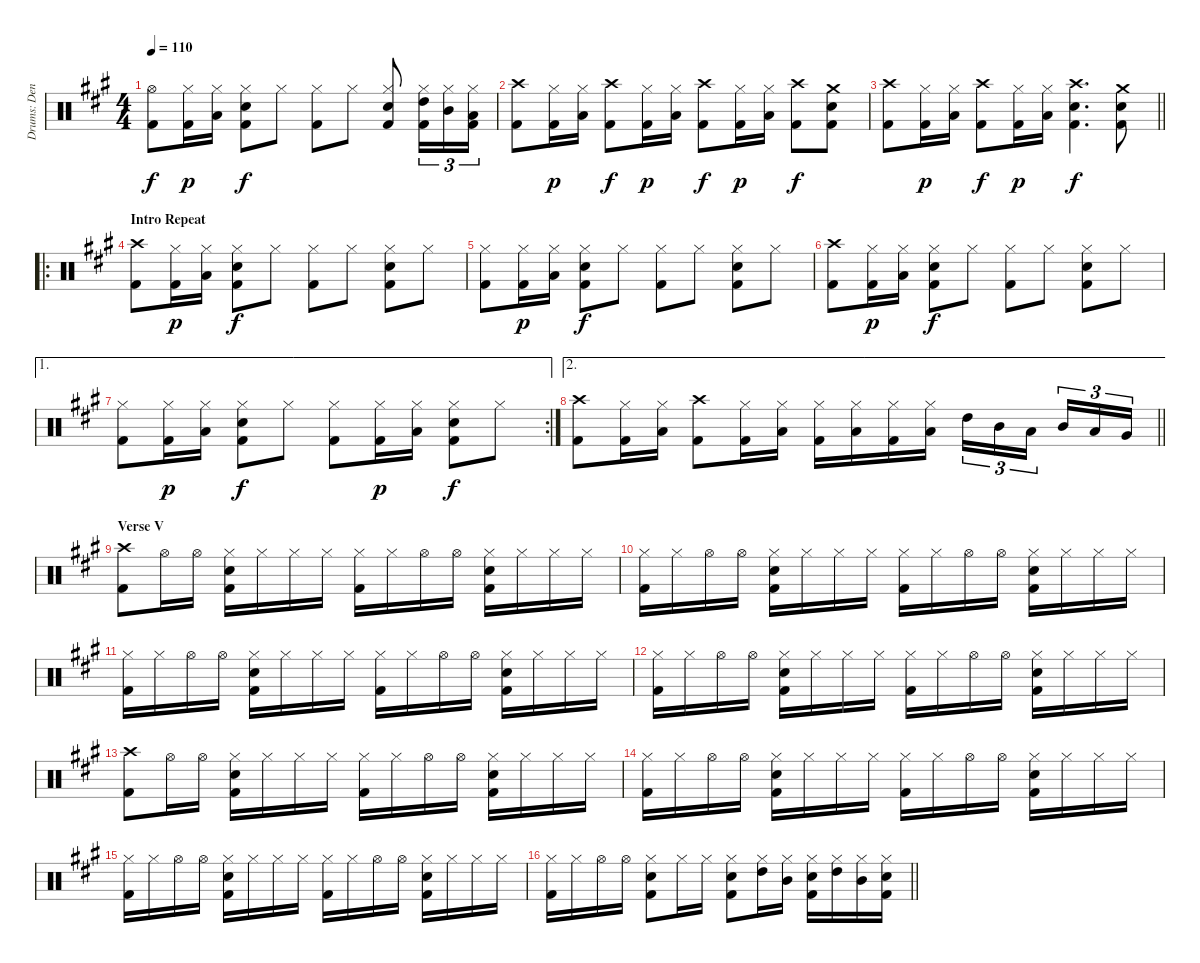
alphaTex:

\track ("Drums: Dennis Elliott" "Drums: Den") {instrument percussion}
\staff {score}
\articulation defaults
\ts (4 4)
\tempo 110
\clef neutral
\ks a
("Hi-Hat (open)" "Kick (hit) 2").8{dy f} ("Hi-Hat (closed)" "Kick (hit) 2").16{dy p} ("Hi-Hat (closed)" "Low Tom (hit)").16 ("Hi-Hat (closed)" "Snare (hit) 2" "Kick (hit) 2").8{dy f} "Hi-Hat (closed)".8 ("Hi-Hat (closed)" "Kick (hit) 2").8 "Hi-Hat (closed)".8 ("Hi-Hat (closed)" "Snare (hit) 2" "Kick (hit) 2").8 ("Hi-Hat (closed)" "High Tom (hit)" "Kick (hit) 2").16{tu (3 2)} ("Hi-Hat (closed)" "Mid Tom (hit)").16{tu (3 2)} ("Hi-Hat (closed)" "Low Tom (hit)" "Kick (hit) 2").16{tu (3 2)} |
("Crash high (hit)" "Kick (hit) 2").8 ("Hi-Hat (closed)" "Kick (hit) 2").16{dy p} ("Hi-Hat (closed)" "Low Tom (hit)").16 ("Crash high (hit)" "Kick (hit) 2").8{dy f} ("Hi-Hat (closed)" "Kick (hit) 2").16{dy p} ("Hi-Hat (closed)" "Low Tom (hit)").16 ("Crash high (hit)" "Kick (hit) 2").8{dy f} ("Hi-Hat (closed)" "Kick (hit) 2").16{dy p} ("Hi-Hat (closed)" "Low Tom (hit)").16 ("Crash high (hit)" "Kick (hit) 2").8{dy f} ("Crash medium (hit)" "Snare (hit) 2" "Kick (hit) 2").8 |
\barLineRight lightlight
("Crash high (hit)" "Kick (hit) 2").8 ("Hi-Hat (closed)" "Kick (hit) 2").16{dy p} ("Hi-Hat (closed)" "Low Tom (hit)").16 ("Crash high (hit)" "Kick (hit) 2").8{dy f} ("Hi-Hat (closed)" "Kick (hit) 2").16{dy p} ("Hi-Hat (closed)" "Low Tom (hit)").16 ("Crash high (hit)" "Snare (hit) 2" "Kick (hit) 2").4{d dy f} ("Crash medium (hit)" "Snare (hit) 2" "Kick (hit) 2").8 |
\ro
\section ("" "Intro Repeat")
("Crash high (hit)" "Kick (hit) 2").8 ("Hi-Hat (closed)" "Kick (hit) 2").16{dy p} ("Hi-Hat (closed)" "Low Tom (hit)").16 ("Hi-Hat (closed)" "Snare (hit) 2" "Kick (hit) 2").8{dy f} "Hi-Hat (closed)".8 ("Hi-Hat (closed)" "Kick (hit) 2").8 "Hi-Hat (closed)".8 ("Hi-Hat (closed)" "Snare (hit) 2" "Kick (hit) 2").8 "Hi-Hat (closed)".8 |
("Hi-Hat (closed)" "Kick (hit) 2").8 ("Hi-Hat (closed)" "Kick (hit) 2").16{dy p} ("Hi-Hat (closed)" "Low Tom (hit)").16 ("Hi-Hat (closed)" "Snare (hit) 2" "Kick (hit) 2").8{dy f} "Hi-Hat (closed)".8 ("Hi-Hat (closed)" "Kick (hit) 2").8 "Hi-Hat (closed)".8 ("Hi-Hat (closed)" "Snare (hit) 2" "Kick (hit) 2").8 "Hi-Hat (closed)".8 |
("Crash high (hit)" "Kick (hit) 2").8 ("Hi-Hat (closed)" "Kick (hit) 2").16{dy p} ("Hi-Hat (closed)" "Low Tom (hit)").16 ("Hi-Hat (closed)" "Snare (hit) 2" "Kick (hit) 2").8{dy f} "Hi-Hat (closed)".8 ("Hi-Hat (closed)" "Kick (hit) 2").8 "Hi-Hat (closed)".8 ("Hi-Hat (closed)" "Snare (hit) 2" "Kick (hit) 2").8 "Hi-Hat (closed)".8 |
\ae 1
\rc 2
("Hi-Hat (closed)" "Kick (hit) 2").8 ("Hi-Hat (closed)" "Kick (hit) 2").16{dy p} ("Hi-Hat (closed)" "Low Tom (hit)").16 ("Hi-Hat (closed)" "Snare (hit) 2" "Kick (hit) 2").8{dy f} "Hi-Hat (closed)".8 ("Hi-Hat (closed)" "Kick (hit) 2").8 ("Hi-Hat (closed)" "Kick (hit) 2").16{dy p} ("Hi-Hat (closed)" "Low Tom (hit)").16 ("Hi-Hat (closed)" "Snare (hit) 2" "Kick (hit) 2").8{dy f} "Hi-Hat (closed)".8 |
\ae 2
\barLineRight lightlight
("Crash high (hit)" "Kick (hit) 2").8 ("Hi-Hat (closed)" "Kick (hit) 2").16 ("Hi-Hat (closed)" "Low Tom (hit)").16 ("Crash high (hit)" "Kick (hit) 2").8 ("Hi-Hat (closed)" "Kick (hit) 2").16 ("Hi-Hat (closed)" "Low Tom (hit)").16 ("Hi-Hat (closed)" "Kick (hit) 2").16 ("Hi-Hat (closed)" "Low Tom (hit)").16 ("Hi-Hat (closed)" "Kick (hit) 2").16 ("Hi-Hat (closed)" "Low Tom (hit)").16 "High Tom (hit)".16{tu (3 2)} "Mid Tom (hit)".16{tu (3 2)} "Low Tom (hit)".16{tu (3 2) beam splitsecondary} "Mid Tom (hit)".16{tu (3 2)} "Low Tom (hit)".16{tu (3 2)} "Very Low Tom (hit)".16{tu (3 2)} |
\section ("" "Verse V")
("Crash high (hit)" "Kick (hit) 2").8 "Hi-Hat (open)".16 "Hi-Hat (open)".16 ("Hi-Hat (closed)" "Snare (hit) 2" "Kick (hit) 2").16 "Hi-Hat (closed)".16 "Hi-Hat (closed)".16 "Hi-Hat (closed)".16 ("Hi-Hat (closed)" "Kick (hit) 2").16 "Hi-Hat (closed)".16 "Hi-Hat (open)".16 "Hi-Hat (open)".16 ("Hi-Hat (closed)" "Snare (hit) 2" "Kick (hit) 2").16 "Hi-Hat (closed)".16 "Hi-Hat (closed)".16 "Hi-Hat (closed)".16 |
("Hi-Hat (closed)" "Kick (hit) 2").16 "Hi-Hat (closed)".16 "Hi-Hat (open)".16 "Hi-Hat (open)".16 ("Hi-Hat (closed)" "Snare (hit) 2" "Kick (hit) 2").16 "Hi-Hat (closed)".16 "Hi-Hat (closed)".16 "Hi-Hat (closed)".16 ("Hi-Hat (closed)" "Kick (hit) 2").16 "Hi-Hat (closed)".16 "Hi-Hat (open)".16 "Hi-Hat (open)".16 ("Hi-Hat (closed)" "Snare (hit) 2" "Kick (hit) 2").16 "Hi-Hat (closed)".16 "Hi-Hat (closed)".16 "Hi-Hat (closed)".16 |
("Hi-Hat (closed)" "Kick (hit) 2").16 "Hi-Hat (closed)".16 "Hi-Hat (open)".16 "Hi-Hat (open)".16 ("Hi-Hat (closed)" "Snare (hit) 2" "Kick (hit) 2").16 "Hi-Hat (closed)".16 "Hi-Hat (closed)".16 "Hi-Hat (closed)".16 ("Hi-Hat (closed)" "Kick (hit) 2").16 "Hi-Hat (closed)".16 "Hi-Hat (open)".16 "Hi-Hat (open)".16 ("Hi-Hat (closed)" "Snare (hit) 2" "Kick (hit) 2").16 "Hi-Hat (closed)".16 "Hi-Hat (closed)".16 "Hi-Hat (closed)".16 |
("Hi-Hat (closed)" "Kick (hit) 2").16 "Hi-Hat (closed)".16 "Hi-Hat (open)".16 "Hi-Hat (open)".16 ("Hi-Hat (closed)" "Snare (hit) 2" "Kick (hit) 2").16 "Hi-Hat (closed)".16 "Hi-Hat (closed)".16 "Hi-Hat (closed)".16 ("Hi-Hat (closed)" "Kick (hit) 2").16 "Hi-Hat (closed)".16 "Hi-Hat (open)".16 "Hi-Hat (open)".16 ("Hi-Hat (closed)" "Snare (hit) 2" "Kick (hit) 2").16 "Hi-Hat (closed)".16 "Hi-Hat (closed)".16 "Hi-Hat (closed)".16 |
("Crash high (hit)" "Kick (hit) 2").8 "Hi-Hat (open)".16 "Hi-Hat (open)".16 ("Hi-Hat (closed)" "Snare (hit) 2" "Kick (hit) 2").16 "Hi-Hat (closed)".16 "Hi-Hat (closed)".16 "Hi-Hat (closed)".16 ("Hi-Hat (closed)" "Kick (hit) 2").16 "Hi-Hat (closed)".16 "Hi-Hat (open)".16 "Hi-Hat (open)".16 ("Hi-Hat (closed)" "Snare (hit) 2" "Kick (hit) 2").16 "Hi-Hat (closed)".16 "Hi-Hat (closed)".16 "Hi-Hat (closed)".16 |
("Hi-Hat (closed)" "Kick (hit) 2").16 "Hi-Hat (closed)".16 "Hi-Hat (open)".16 "Hi-Hat (open)".16 ("Hi-Hat (closed)" "Snare (hit) 2" "Kick (hit) 2").16 "Hi-Hat (closed)".16 "Hi-Hat (closed)".16 "Hi-Hat (closed)".16 ("Hi-Hat (closed)" "Kick (hit) 2").16 "Hi-Hat (closed)".16 "Hi-Hat (open)".16 "Hi-Hat (open)".16 ("Hi-Hat (closed)" "Snare (hit) 2" "Kick (hit) 2").16 "Hi-Hat (closed)".16 "Hi-Hat (closed)".16 "Hi-Hat (closed)".16 |
("Hi-Hat (closed)" "Kick (hit) 2").16 "Hi-Hat (closed)".16 "Hi-Hat (open)".16 "Hi-Hat (open)".16 ("Hi-Hat (closed)" "Snare (hit) 2" "Kick (hit) 2").16 "Hi-Hat (closed)".16 "Hi-Hat (closed)".16 "Hi-Hat (closed)".16 ("Hi-Hat (closed)" "Kick (hit) 2").16 "Hi-Hat (closed)".16 "Hi-Hat (open)".16 "Hi-Hat (open)".16 ("Hi-Hat (closed)" "Snare (hit) 2" "Kick (hit) 2").16 "Hi-Hat (closed)".16 "Hi-Hat (closed)".16 "Hi-Hat (closed)".16 |
\barLineRight lightlight
("Hi-Hat (closed)" "Kick (hit) 2").16 "Hi-Hat (closed)".16 "Hi-Hat (open)".16 "Hi-Hat (open)".16 ("Hi-Hat (closed)" "Snare (hit) 2" "Kick (hit) 2").8 "Hi-Hat (closed)".16 "Hi-Hat (closed)".16 ("Hi-Hat (closed)" "Snare (hit) 2" "Kick (hit) 2").8 ("Hi-Hat (closed)" "High Tom (hit)").16 ("Hi-Hat (closed)" "Mid Tom (hit)").16 ("Hi-Hat (closed)" "Snare (hit) 2" "Kick (hit) 2").16 ("Hi-Hat (closed)" "High Tom (hit)").16 ("Hi-Hat (closed)" "Mid Tom (hit)").16 ("Hi-Hat (closed)" "Snare (hit) 2" "Kick (hit) 2").16
